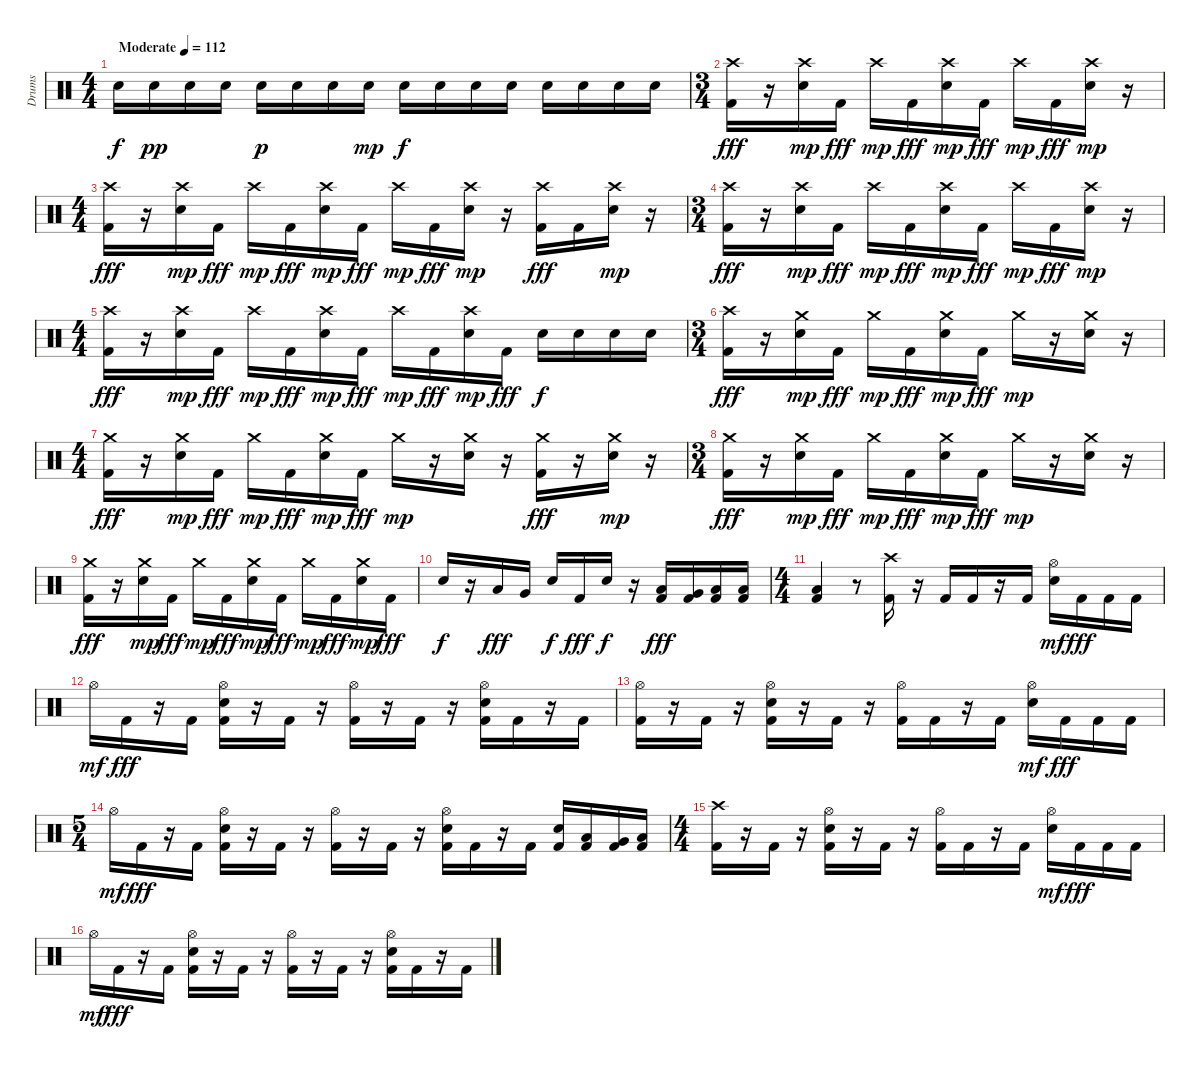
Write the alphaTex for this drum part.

\track ("Drums" "Drums") {instrument percussion}
\staff
\articulation defaults
\ts (4 4)
\tempo (112 "Moderate")
\clef neutral
\ks c "Electric Snare (hit)".16{dy f} "Electric Snare (hit)".16{dy pp} "Electric Snare (hit)".16 "Electric Snare (hit)".16 "Electric Snare (hit)".16{dy p} "Electric Snare (hit)".16 "Electric Snare (hit)".16 "Electric Snare (hit)".16{dy mp} "Electric Snare (hit)".16{dy f} "Electric Snare (hit)".16 "Electric Snare (hit)".16 "Electric Snare (hit)".16 "Electric Snare (hit)".16 "Electric Snare (hit)".16 "Electric Snare (hit)".16 "Electric Snare (hit)".16
|
\ts (3 4)
("Crash high (hit)" "Kick (hit) 2").16{dy fff} r.16 ("Crash high (hit)" "Electric Snare (hit)").16{dy mp} "Kick (hit) 2".16{dy fff} "Crash high (hit)".16{dy mp} "Kick (hit) 2".16{dy fff} ("Crash high (hit)" "Electric Snare (hit)").16{dy mp} "Kick (hit) 2".16{dy fff} "Crash high (hit)".16{dy mp} "Kick (hit) 2".16{dy fff} ("Crash high (hit)" "Electric Snare (hit)").16{dy mp} r.16 |
\ts (4 4)
("Crash high (hit)" "Kick (hit) 2").16{dy fff} r.16 ("Crash high (hit)" "Electric Snare (hit)").16{dy mp} "Kick (hit) 2".16{dy fff} "Crash high (hit)".16{dy mp} "Kick (hit) 2".16{dy fff} ("Crash high (hit)" "Electric Snare (hit)").16{dy mp} "Kick (hit) 2".16{dy fff} "Crash high (hit)".16{dy mp} "Kick (hit) 2".16{dy fff} ("Crash high (hit)" "Electric Snare (hit)").16{dy mp} r.16 ("Crash high (hit)" "Kick (hit) 2").16{dy fff} "Kick (hit) 2".16 ("Crash high (hit)" "Electric Snare (hit)").16{dy mp} r.16 |
\ts (3 4)
("Crash high (hit)" "Kick (hit) 2").16{dy fff} r.16 ("Crash high (hit)" "Electric Snare (hit)").16{dy mp} "Kick (hit) 2".16{dy fff} "Crash high (hit)".16{dy mp} "Kick (hit) 2".16{dy fff} ("Crash high (hit)" "Electric Snare (hit)").16{dy mp} "Kick (hit) 2".16{dy fff} "Crash high (hit)".16{dy mp} "Kick (hit) 2".16{dy fff} ("Crash high (hit)" "Electric Snare (hit)").16{dy mp} r.16 |
\ts (4 4)
("Crash high (hit)" "Kick (hit) 2").16{dy fff} r.16 ("Crash high (hit)" "Electric Snare (hit)").16{dy mp} "Kick (hit) 2".16{dy fff} "Crash high (hit)".16{dy mp} "Kick (hit) 2".16{dy fff} ("Crash high (hit)" "Electric Snare (hit)").16{dy mp} "Kick (hit) 2".16{dy fff} "Crash high (hit)".16{dy mp} "Kick (hit) 2".16{dy fff} ("Crash high (hit)" "Electric Snare (hit)").16{dy mp} "Kick (hit) 2".16{dy fff} "Electric Snare (hit)".16{dy f} "Electric Snare (hit)".16 "Electric Snare (hit)".16 "Electric Snare (hit)".16 |
\ts (3 4)
("Crash high (hit)" "Kick (hit) 2").16{dy fff} r.16 ("Crash medium (hit)" "Electric Snare (hit)").16{dy mp} "Kick (hit) 2".16{dy fff} "Crash medium (hit)".16{dy mp} "Kick (hit) 2".16{dy fff} ("Crash medium (hit)" "Electric Snare (hit)").16{dy mp} "Kick (hit) 2".16{dy fff} "Crash medium (hit)".16{dy mp} r.16 ("Crash medium (hit)" "Electric Snare (hit)").16 r.16 |
\ts (4 4)
("Crash medium (hit)" "Kick (hit) 2").16{dy fff} r.16 ("Crash medium (hit)" "Electric Snare (hit)").16{dy mp} "Kick (hit) 2".16{dy fff} "Crash medium (hit)".16{dy mp} "Kick (hit) 2".16{dy fff} ("Crash medium (hit)" "Electric Snare (hit)").16{dy mp} "Kick (hit) 2".16{dy fff} "Crash medium (hit)".16{dy mp} r.16 ("Crash medium (hit)" "Electric Snare (hit)").16 r.16 ("Crash medium (hit)" "Kick (hit) 2").16{dy fff} r.16 ("Crash medium (hit)" "Electric Snare (hit)").16{dy mp} r.16 |
\ts (3 4)
("Crash medium (hit)" "Kick (hit) 2").16{dy fff} r.16 ("Crash medium (hit)" "Electric Snare (hit)").16{dy mp} "Kick (hit) 2".16{dy fff} "Crash medium (hit)".16{dy mp} "Kick (hit) 2".16{dy fff} ("Crash medium (hit)" "Electric Snare (hit)").16{dy mp} "Kick (hit) 2".16{dy fff} "Crash medium (hit)".16{dy mp} r.16 ("Crash medium (hit)" "Electric Snare (hit)").16 r.16 |
("Crash medium (hit)" "Kick (hit) 2").16{dy fff} r.16 ("Crash medium (hit)" "Electric Snare (hit)").16{dy mp} "Kick (hit) 2".16{dy fff} "Crash medium (hit)".16{dy mp} "Kick (hit) 2".16{dy fff} ("Crash medium (hit)" "Electric Snare (hit)").16{dy mp} "Kick (hit) 2".16{dy fff} "Crash medium (hit)".16{dy mp} "Kick (hit) 2".16{dy fff} ("Crash medium (hit)" "Electric Snare (hit)").16{dy mp} "Kick (hit) 2".16{dy fff} |
"Electric Snare (hit)".16{dy f} r.16 "Low Tom (hit)".16{dy fff} "Very Low Tom (hit)".16 "Electric Snare (hit)".16{dy f} "Kick (hit) 2".16{dy fff} "Electric Snare (hit)".16{dy f} r.16 ("Low Tom (hit)" "Kick (hit) 2").16{dy fff} ("Very Low Tom (hit)" "Kick (hit) 2").16 ("Low Floor Tom (hit)" "Kick (hit) 2").16 ("Low Floor Tom (hit)" "Kick (hit) 2").16 |
\ts (4 4)
("Low Floor Tom (hit)" "Kick (hit) 2").4 r.8 ("Crash high (hit)" "Kick (hit) 2").16 r.16 "Kick (hit) 2".16 "Kick (hit) 2".16 r.16 "Kick (hit) 2".16 ("Hi-Hat (open)" "Electric Snare (hit)").16{dy mf} "Kick (hit) 2".16{dy fff} "Kick (hit) 2".16 "Kick (hit) 2".16 |
"Hi-Hat (open)".16{dy mf} "Kick (hit) 2".16{dy fff} r.16 "Kick (hit) 2".16 ("Hi-Hat (open)" "Electric Snare (hit)" "Kick (hit) 2").16 r.16 "Kick (hit) 2".16 r.16 ("Hi-Hat (open)" "Kick (hit) 2").16 r.16 "Kick (hit) 2".16 r.16 ("Hi-Hat (open)" "Electric Snare (hit)" "Kick (hit) 2").16 "Kick (hit) 2".16 r.16 "Kick (hit) 2".16 |
("Hi-Hat (open)" "Kick (hit) 2").16 r.16 "Kick (hit) 2".16 r.16 ("Hi-Hat (open)" "Electric Snare (hit)" "Kick (hit) 2").16 r.16 "Kick (hit) 2".16 r.16 ("Hi-Hat (open)" "Kick (hit) 2").16 "Kick (hit) 2".16 r.16 "Kick (hit) 2".16 ("Hi-Hat (open)" "Electric Snare (hit)").16{dy mf} "Kick (hit) 2".16{dy fff} "Kick (hit) 2".16 "Kick (hit) 2".16 |
\ts (5 4)
"Hi-Hat (open)".16{dy mf} "Kick (hit) 2".16{dy fff} r.16 "Kick (hit) 2".16 ("Hi-Hat (open)" "Electric Snare (hit)" "Kick (hit) 2").16 r.16 "Kick (hit) 2".16 r.16 ("Hi-Hat (open)" "Kick (hit) 2").16 r.16 "Kick (hit) 2".16 r.16 ("Hi-Hat (open)" "Electric Snare (hit)" "Kick (hit) 2").16 "Kick (hit) 2".16 r.16 "Kick (hit) 2".16 ("Electric Snare (hit)" "Kick (hit) 2").16 ("Low Tom (hit)" "Kick (hit) 2").16 ("Very Low Tom (hit)" "Kick (hit) 2").16 ("Low Floor Tom (hit)" "Kick (hit) 2").16 |
\ts (4 4)
("Crash high (hit)" "Kick (hit) 2").16 r.16 "Kick (hit) 2".16 r.16 ("Hi-Hat (open)" "Electric Snare (hit)" "Kick (hit) 2").16 r.16 "Kick (hit) 2".16 r.16 ("Hi-Hat (open)" "Kick (hit) 2").16 "Kick (hit) 2".16 r.16 "Kick (hit) 2".16 ("Hi-Hat (open)" "Electric Snare (hit)").16{dy mf} "Kick (hit) 2".16{dy fff} "Kick (hit) 2".16 "Kick (hit) 2".16 |
"Hi-Hat (open)".16{dy mf} "Kick (hit) 2".16{dy fff} r.16 "Kick (hit) 2".16 ("Hi-Hat (open)" "Electric Snare (hit)" "Kick (hit) 2").16 r.16 "Kick (hit) 2".16 r.16 ("Hi-Hat (open)" "Kick (hit) 2").16 r.16 "Kick (hit) 2".16 r.16 ("Hi-Hat (open)" "Electric Snare (hit)" "Kick (hit) 2").16 "Kick (hit) 2".16 r.16 "Kick (hit) 2".16
